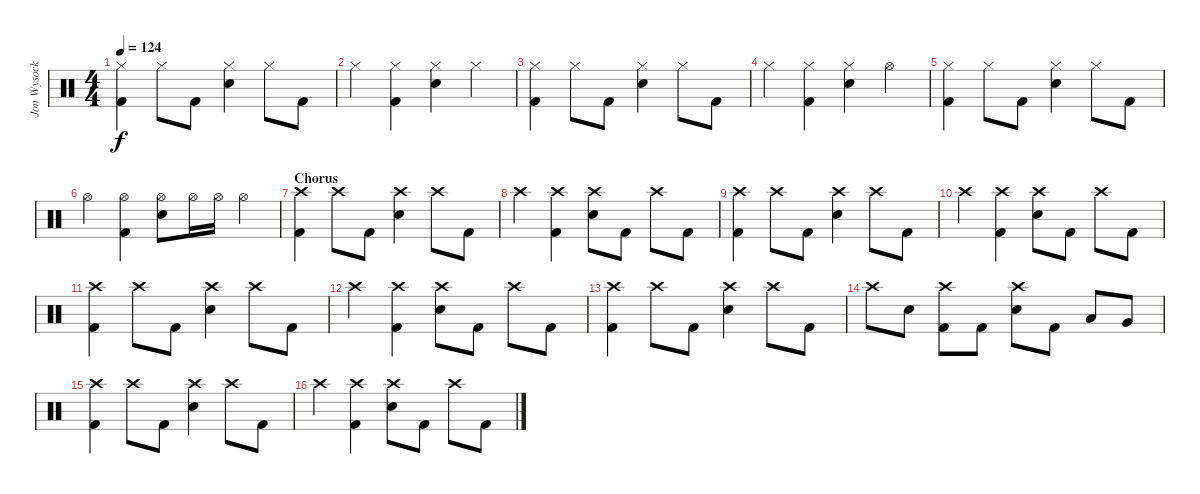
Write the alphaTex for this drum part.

\track ("Jon Wysocki - Drums" "Jon Wysock") {instrument percussion}
\staff {score}
\articulation defaults
\ts (4 4)
\tempo 124
\clef neutral
\ks c
("Hi-Hat (closed)" "Kick (hit) 2").4{dy f} "Hi-Hat (closed)".8 "Kick (hit) 2".8 ("Hi-Hat (closed)" "Electric Snare (hit)").4 "Hi-Hat (closed)".8 "Kick (hit) 2".8 |
"Hi-Hat (closed)".4 ("Hi-Hat (closed)" "Kick (hit) 2").4 ("Hi-Hat (closed)" "Electric Snare (hit)").4 "Hi-Hat (closed)".4 |
("Hi-Hat (closed)" "Kick (hit) 2").4 "Hi-Hat (closed)".8 "Kick (hit) 2".8 ("Hi-Hat (closed)" "Electric Snare (hit)").4 "Hi-Hat (closed)".8 "Kick (hit) 2".8 |
"Hi-Hat (closed)".4 ("Hi-Hat (closed)" "Kick (hit) 2").4 ("Hi-Hat (closed)" "Electric Snare (hit)").4 "Hi-Hat (open)".4 |
("Hi-Hat (closed)" "Kick (hit) 2").4 "Hi-Hat (closed)".8 "Kick (hit) 2".8 ("Hi-Hat (closed)" "Electric Snare (hit)").4 "Hi-Hat (closed)".8 "Kick (hit) 2".8 |
"Hi-Hat (open)".4 ("Hi-Hat (open)" "Kick (hit) 2").4 ("Hi-Hat (open)" "Electric Snare (hit)").8 "Hi-Hat (open)".16 "Hi-Hat (open)".16 "Hi-Hat (open)".4 |
\section ("" "Chorus")
("Crash high (hit)" "Kick (hit) 2").4 "Crash high (hit)".8 "Kick (hit) 2".8 ("Crash high (hit)" "Electric Snare (hit)").4 "Crash high (hit)".8 "Kick (hit) 2".8 |
"Crash high (hit)".4 ("Crash high (hit)" "Kick (hit) 2").4 ("Crash high (hit)" "Electric Snare (hit)").8 "Kick (hit) 2".8 "Crash high (hit)".8 "Kick (hit) 2".8 |
("Crash high (hit)" "Kick (hit) 2").4 "Crash high (hit)".8 "Kick (hit) 2".8 ("Crash high (hit)" "Electric Snare (hit)").4 "Crash high (hit)".8 "Kick (hit) 2".8 |
"Crash high (hit)".4 ("Crash high (hit)" "Kick (hit) 2").4 ("Crash high (hit)" "Electric Snare (hit)").8 "Kick (hit) 2".8 "Crash high (hit)".8 "Kick (hit) 2".8 |
("Crash high (hit)" "Kick (hit) 2").4 "Crash high (hit)".8 "Kick (hit) 2".8 ("Crash high (hit)" "Electric Snare (hit)").4 "Crash high (hit)".8 "Kick (hit) 2".8 |
"Crash high (hit)".4 ("Crash high (hit)" "Kick (hit) 2").4 ("Crash high (hit)" "Electric Snare (hit)").8 "Kick (hit) 2".8 "Crash high (hit)".8 "Kick (hit) 2".8 |
("Crash high (hit)" "Kick (hit) 2").4 "Crash high (hit)".8 "Kick (hit) 2".8 ("Crash high (hit)" "Electric Snare (hit)").4 "Crash high (hit)".8 "Kick (hit) 2".8 |
"Crash high (hit)".8 "Electric Snare (hit)".8 ("Crash high (hit)" "Kick (hit) 2").8 "Kick (hit) 2".8 ("Crash high (hit)" "Electric Snare (hit)").8 "Kick (hit) 2".8 "Low Tom (hit)".8 "Very Low Tom (hit)".8 |
\section ("" "")
("Crash high (hit)" "Kick (hit) 2").4 "Crash high (hit)".8 "Kick (hit) 2".8 ("Crash high (hit)" "Electric Snare (hit)").4 "Crash high (hit)".8 "Kick (hit) 2".8 |
"Crash high (hit)".4 ("Crash high (hit)" "Kick (hit) 2").4 ("Crash high (hit)" "Electric Snare (hit)").8 "Kick (hit) 2".8 "Crash high (hit)".8 "Kick (hit) 2".8
